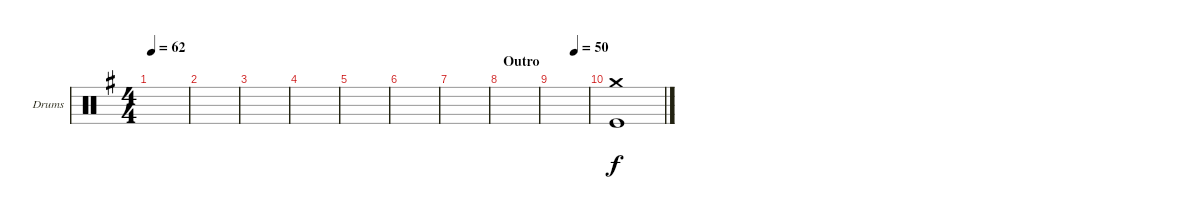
\defaultSystemsLayout 4
\bracketExtendMode groupsimilarinstruments
\firstSystemTrackNameOrientation horizontal
\otherSystemsTrackNameOrientation horizontal
\track ("Drumkit" "Drums") {instrument percussion}
\staff {score}
\articulation defaults
\ts (4 4)
\tempo 62
\clef neutral
\scale
0.333333
\ks g
|
\scale
0.333333 |
\scale
0.333333 |
\scale
0.333333 |
\scale
0.333333 |
\scale
0.333333 |
\scale
0.333333 |
\section ("" "Outro")
\scale
0.333333 |
\tempo (50 0.625)
|
("Crash medium (hit)" "Kick (hit)").1{dy f}
